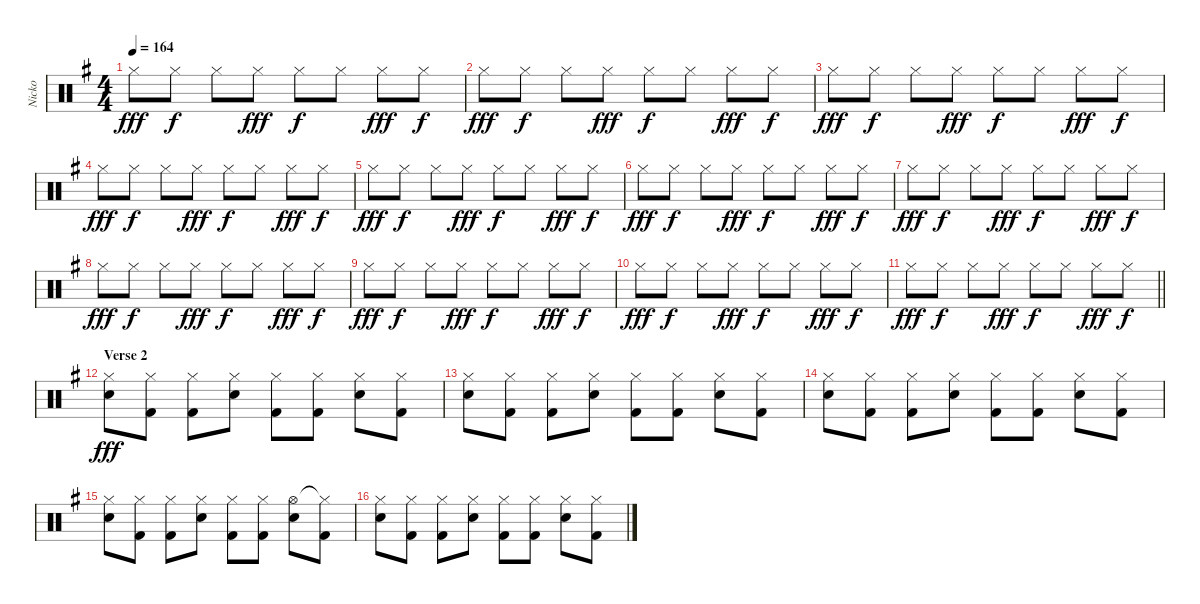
\track ("Nicko" "Nicko") {instrument percussion}
\staff {score}
\articulation defaults
\ts (4 4)
\tempo 164
\clef neutral
\ks eminor "Hi-Hat (closed)".8{dy fff} "Hi-Hat (closed)".8{dy f} "Hi-Hat (closed)".8 "Hi-Hat (closed)".8{dy fff} "Hi-Hat (closed)".8{dy f} "Hi-Hat (closed)".8 "Hi-Hat (closed)".8{dy fff} "Hi-Hat (closed)".8{dy f}
|
"Hi-Hat (closed)".8{dy fff} "Hi-Hat (closed)".8{dy f} "Hi-Hat (closed)".8 "Hi-Hat (closed)".8{dy fff} "Hi-Hat (closed)".8{dy f} "Hi-Hat (closed)".8 "Hi-Hat (closed)".8{dy fff} "Hi-Hat (closed)".8{dy f} |
"Hi-Hat (closed)".8{dy fff} "Hi-Hat (closed)".8{dy f} "Hi-Hat (closed)".8 "Hi-Hat (closed)".8{dy fff} "Hi-Hat (closed)".8{dy f} "Hi-Hat (closed)".8 "Hi-Hat (closed)".8{dy fff} "Hi-Hat (closed)".8{dy f} |
"Hi-Hat (closed)".8{dy fff} "Hi-Hat (closed)".8{dy f} "Hi-Hat (closed)".8 "Hi-Hat (closed)".8{dy fff} "Hi-Hat (closed)".8{dy f} "Hi-Hat (closed)".8 "Hi-Hat (closed)".8{dy fff} "Hi-Hat (closed)".8{dy f} |
"Hi-Hat (closed)".8{dy fff} "Hi-Hat (closed)".8{dy f} "Hi-Hat (closed)".8 "Hi-Hat (closed)".8{dy fff} "Hi-Hat (closed)".8{dy f} "Hi-Hat (closed)".8 "Hi-Hat (closed)".8{dy fff} "Hi-Hat (closed)".8{dy f} |
"Hi-Hat (closed)".8{dy fff} "Hi-Hat (closed)".8{dy f} "Hi-Hat (closed)".8 "Hi-Hat (closed)".8{dy fff} "Hi-Hat (closed)".8{dy f} "Hi-Hat (closed)".8 "Hi-Hat (closed)".8{dy fff} "Hi-Hat (closed)".8{dy f} |
"Hi-Hat (closed)".8{dy fff} "Hi-Hat (closed)".8{dy f} "Hi-Hat (closed)".8 "Hi-Hat (closed)".8{dy fff} "Hi-Hat (closed)".8{dy f} "Hi-Hat (closed)".8 "Hi-Hat (closed)".8{dy fff} "Hi-Hat (closed)".8{dy f} |
"Hi-Hat (closed)".8{dy fff} "Hi-Hat (closed)".8{dy f} "Hi-Hat (closed)".8 "Hi-Hat (closed)".8{dy fff} "Hi-Hat (closed)".8{dy f} "Hi-Hat (closed)".8 "Hi-Hat (closed)".8{dy fff} "Hi-Hat (closed)".8{dy f} |
"Hi-Hat (closed)".8{dy fff} "Hi-Hat (closed)".8{dy f} "Hi-Hat (closed)".8 "Hi-Hat (closed)".8{dy fff} "Hi-Hat (closed)".8{dy f} "Hi-Hat (closed)".8 "Hi-Hat (closed)".8{dy fff} "Hi-Hat (closed)".8{dy f} |
"Hi-Hat (closed)".8{dy fff} "Hi-Hat (closed)".8{dy f} "Hi-Hat (closed)".8 "Hi-Hat (closed)".8{dy fff} "Hi-Hat (closed)".8{dy f} "Hi-Hat (closed)".8 "Hi-Hat (closed)".8{dy fff} "Hi-Hat (closed)".8{dy f} |
\barLineRight lightlight "Hi-Hat (closed)".8{dy fff} "Hi-Hat (closed)".8{dy f} "Hi-Hat (closed)".8 "Hi-Hat (closed)".8{dy fff} "Hi-Hat (closed)".8{dy f} "Hi-Hat (closed)".8 "Hi-Hat (closed)".8{dy fff} "Hi-Hat (closed)".8{dy f}
|
\section ("" "Verse 2")
("Hi-Hat (closed)" "Snare (hit) 2").8{dy fff} ("Hi-Hat (closed)" "Kick (hit) 2").8 ("Hi-Hat (closed)" "Kick (hit) 2").8 ("Hi-Hat (closed)" "Snare (hit) 2").8 ("Hi-Hat (closed)" "Kick (hit) 2").8 ("Hi-Hat (closed)" "Kick (hit) 2").8 ("Hi-Hat (closed)" "Snare (hit) 2").8 ("Hi-Hat (closed)" "Kick (hit) 2").8 |
("Hi-Hat (closed)" "Snare (hit) 2").8 ("Hi-Hat (closed)" "Kick (hit) 2").8 ("Hi-Hat (closed)" "Kick (hit) 2").8 ("Hi-Hat (closed)" "Snare (hit) 2").8 ("Hi-Hat (closed)" "Kick (hit) 2").8 ("Hi-Hat (closed)" "Kick (hit) 2").8 ("Hi-Hat (closed)" "Snare (hit) 2").8 ("Hi-Hat (closed)" "Kick (hit) 2").8 |
("Hi-Hat (closed)" "Snare (hit) 2").8 ("Hi-Hat (closed)" "Kick (hit) 2").8 ("Hi-Hat (closed)" "Kick (hit) 2").8 ("Hi-Hat (closed)" "Snare (hit) 2").8 ("Hi-Hat (closed)" "Kick (hit) 2").8 ("Hi-Hat (closed)" "Kick (hit) 2").8 ("Hi-Hat (closed)" "Snare (hit) 2").8 ("Hi-Hat (closed)" "Kick (hit) 2").8 |
("Hi-Hat (closed)" "Snare (hit) 2").8 ("Hi-Hat (closed)" "Kick (hit) 2").8 ("Hi-Hat (closed)" "Kick (hit) 2").8 ("Hi-Hat (closed)" "Snare (hit) 2").8 ("Hi-Hat (closed)" "Kick (hit) 2").8 ("Hi-Hat (closed)" "Kick (hit) 2").8 ("Hi-Hat (open)" "Snare (hit) 2").8 ("Hi-Hat (closed)"{t} "Kick (hit) 2").8 |
("Hi-Hat (closed)" "Snare (hit) 2").8 ("Hi-Hat (closed)" "Kick (hit) 2").8 ("Hi-Hat (closed)" "Kick (hit) 2").8 ("Hi-Hat (closed)" "Snare (hit) 2").8 ("Hi-Hat (closed)" "Kick (hit) 2").8 ("Hi-Hat (closed)" "Kick (hit) 2").8 ("Hi-Hat (closed)" "Snare (hit) 2").8 ("Hi-Hat (closed)" "Kick (hit) 2").8
